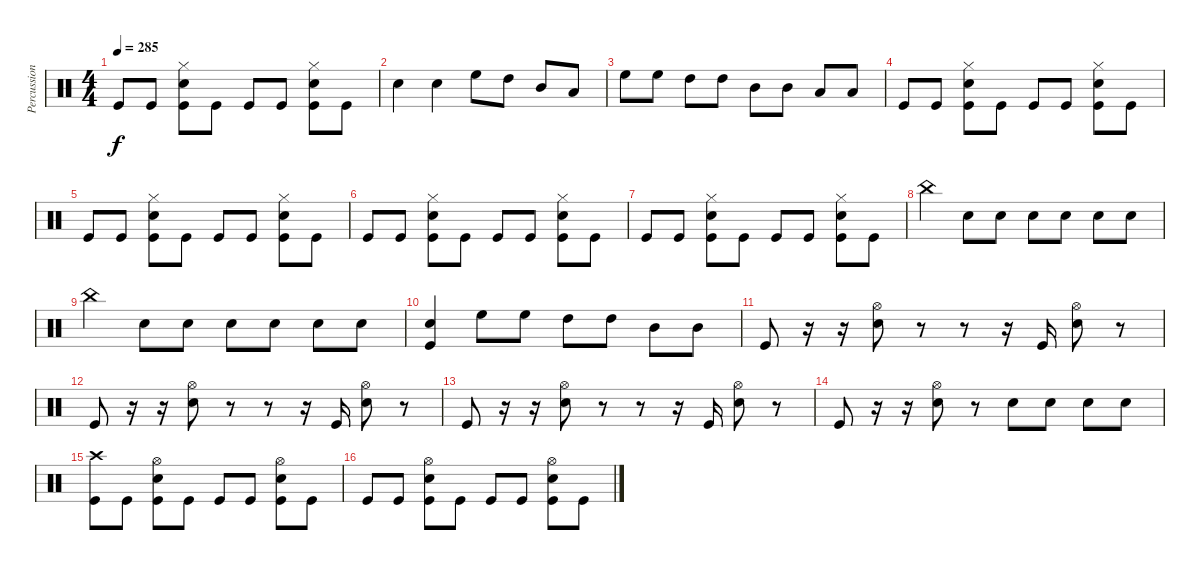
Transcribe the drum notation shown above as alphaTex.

\track ("Percussion" "Percussion") {instrument percussion}
\staff {score}
\articulation defaults
\ts (4 4)
\tempo 285
\clef neutral
\ks c "Kick (hit)".8{dy f} "Kick (hit)".8
("Snare (hit) 2" "Hi-Hat (closed)" "Kick (hit)").8 "Kick (hit)".8 "Kick (hit)".8 "Kick (hit)".8 ("Snare (hit) 2" "Hi-Hat (closed)" "Kick (hit)").8 "Kick (hit)".8 |
"Snare (hit) 2".4 "Snare (hit) 2".4 "High Floor Tom (hit)".8 "High Tom (hit)".8 "Mid Tom (hit)".8 "Low Tom (hit)".8 |
"High Floor Tom (hit)".8 "High Floor Tom (hit)".8 "High Tom (hit)".8 "High Tom (hit)".8 "Mid Tom (hit)".8 "Mid Tom (hit)".8 "Low Tom (hit)".8 "Low Tom (hit)".8 |
"Kick (hit)".8 "Kick (hit)".8 ("Snare (hit) 2" "Hi-Hat (closed)" "Kick (hit)").8 "Kick (hit)".8 "Kick (hit)".8 "Kick (hit)".8 ("Snare (hit) 2" "Hi-Hat (closed)" "Kick (hit)").8 "Kick (hit)".8 |
"Kick (hit)".8 "Kick (hit)".8 ("Snare (hit) 2" "Hi-Hat (closed)" "Kick (hit)").8 "Kick (hit)".8 "Kick (hit)".8 "Kick (hit)".8 ("Snare (hit) 2" "Hi-Hat (closed)" "Kick (hit)").8 "Kick (hit)".8 |
"Kick (hit)".8 "Kick (hit)".8 ("Snare (hit) 2" "Hi-Hat (closed)" "Kick (hit)").8 "Kick (hit)".8 "Kick (hit)".8 "Kick (hit)".8 ("Snare (hit) 2" "Hi-Hat (closed)" "Kick (hit)").8 "Kick (hit)".8 |
"Kick (hit)".8 "Kick (hit)".8 ("Snare (hit) 2" "Hi-Hat (closed)" "Kick (hit)").8 "Kick (hit)".8 "Kick (hit)".8 "Kick (hit)".8 ("Snare (hit) 2" "Hi-Hat (closed)" "Kick (hit)").8 "Kick (hit)".8 |
"China (hit)".4 "Snare (hit) 2".8 "Snare (hit) 2".8 "Snare (hit) 2".8 "Snare (hit) 2".8 "Snare (hit) 2".8 "Snare (hit) 2".8 |
"China (hit)".4 "Snare (hit) 2".8 "Snare (hit) 2".8 "Snare (hit) 2".8 "Snare (hit) 2".8 "Snare (hit) 2".8 "Snare (hit) 2".8 |
("Snare (hit) 2" "Kick (hit)").4 "High Floor Tom (hit)".8 "High Floor Tom (hit)".8 "High Tom (hit)".8 "High Tom (hit)".8 "Mid Tom (hit)".8 "Mid Tom (hit)".8 |
"Kick (hit)".8 r.16 r.16 ("Snare (hit) 2" "Hi-Hat (open)").8 r.8 r.8 r.16 "Kick (hit)".16 ("Snare (hit) 2" "Hi-Hat (open)").8 r.8 |
"Kick (hit)".8 r.16 r.16 ("Snare (hit) 2" "Hi-Hat (open)").8 r.8 r.8 r.16 "Kick (hit)".16 ("Snare (hit) 2" "Hi-Hat (open)").8 r.8 |
"Kick (hit)".8 r.16 r.16 ("Snare (hit) 2" "Hi-Hat (open)").8 r.8 r.8 r.16 "Kick (hit)".16 ("Snare (hit) 2" "Hi-Hat (open)").8 r.8 |
"Kick (hit)".8 r.16 r.16 ("Snare (hit) 2" "Hi-Hat (open)").8 r.8 "Snare (hit) 2".8 "Snare (hit) 2".8 "Snare (hit) 2".8 "Snare (hit) 2".8 |
("Crash high (hit)" "Kick (hit)").8 "Kick (hit)".8 ("Snare (hit) 2" "Hi-Hat (open)" "Kick (hit)").8 "Kick (hit)".8 "Kick (hit)".8 "Kick (hit)".8 ("Snare (hit) 2" "Hi-Hat (open)" "Kick (hit)").8 "Kick (hit)".8 |
"Kick (hit)".8 "Kick (hit)".8 ("Snare (hit) 2" "Hi-Hat (open)" "Kick (hit)").8 "Kick (hit)".8 "Kick (hit)".8 "Kick (hit)".8 ("Snare (hit) 2" "Hi-Hat (open)" "Kick (hit)").8 "Kick (hit)".8
